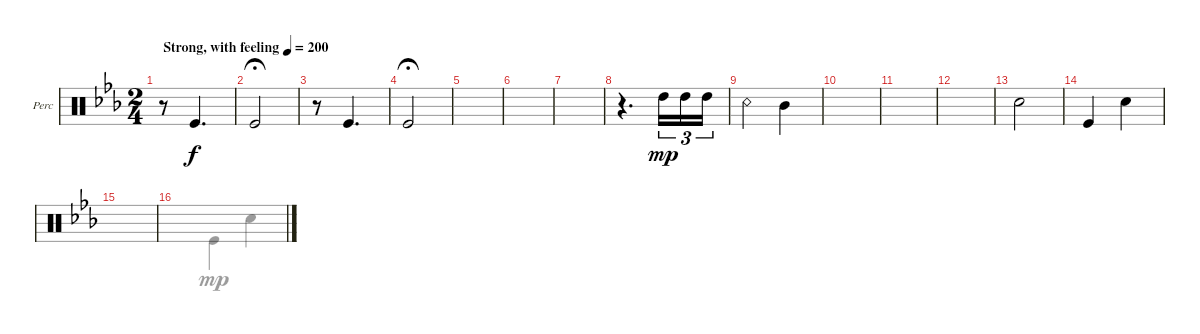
\defaultSystemsLayout 4
\bracketExtendMode groupsimilarinstruments
\firstSystemTrackNameOrientation horizontal
\otherSystemsTrackNameOrientation horizontal
\track ("Body Percussion" "Perc") {instrument percussion}
\staff {score}
\articulation defaults
\voice
\ts (2 4)
\tempo (200 "Strong, with feeling")
\clef neutral
\scale
0.472222
\ks cminor
r.8{dy f} "Kick (hit)".4{d} |
\scale
0.263889 "Kick (hit)".2{fermata (medium 0.94)} |
\scale
0.263889 r.8 "Kick (hit)".4{d} |
\scale
0.333333 "Kick (hit)".2{fermata (medium 0.82)} |
\scale
0.319588
\scale
0.333333 |
\scale
0.189332
\scale
0.333333 |
\scale
0.226625 |
\scale
0.265513 r.4{d} "High Tom (hit)".16{tu (3 2) dy mp} "High Tom (hit)".16{tu (3 2)} "High Tom (hit)".16{tu (3 2)} |
\scale
0.29636 "Snare (rim shot)".4 "Mid Tom (hit)".4 |
\scale
0.298094 |
\scale
0.276596 |
\scale
0.128116 |
\scale
0.296849 "Snare (hit) 2".2 |
\scale
0.205638 "Kick (hit)".4 "Snare (hit) 2".4 |
\scale
0.270629 |
\scale
0.226191
\voice
\clef neutral
\ottava regular
\simile none
\scale
0.472222
\ks cminor
|
\scale
0.263889 |
\scale
0.263889 |
\scale
0.333333 |
\scale
0.333333 |
\scale
0.333333 |
|
|
|
|
|
|
|
|
|
"Kick (hit)".4 "Snare (hit) 2".4
